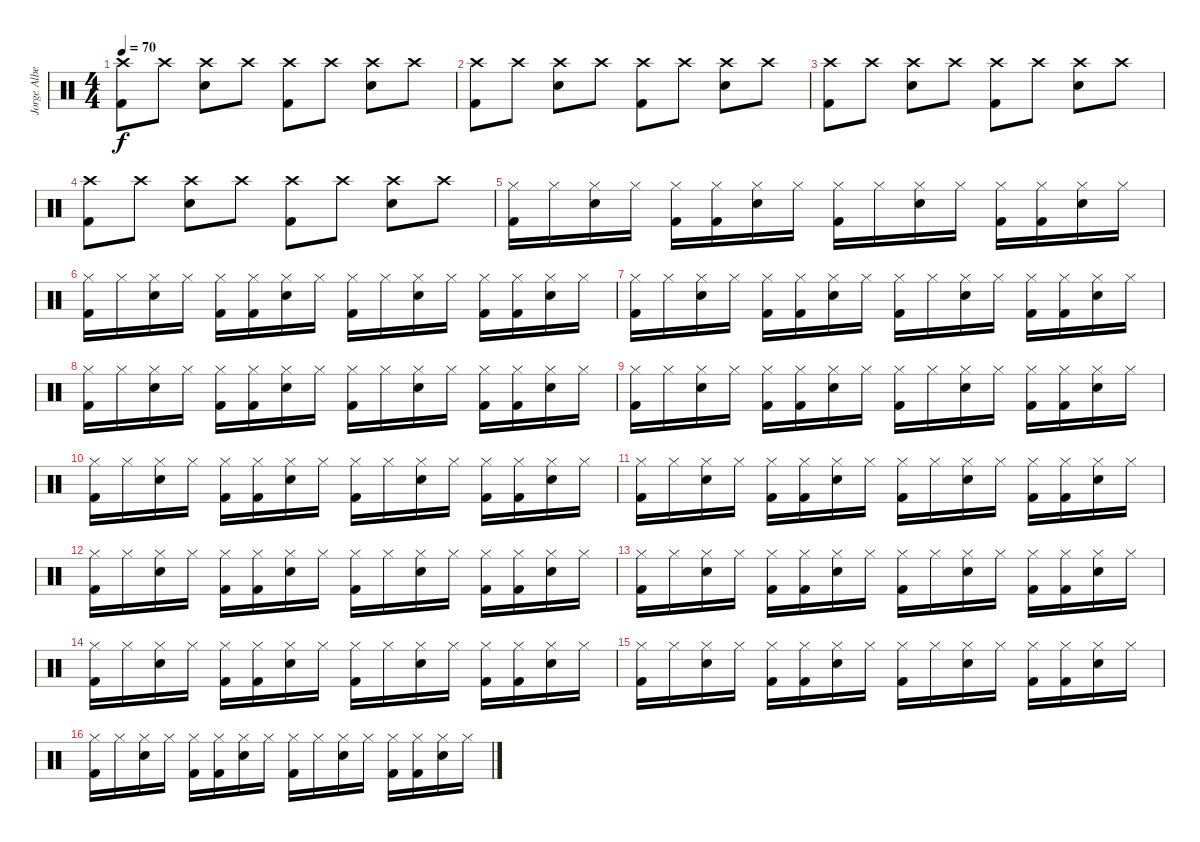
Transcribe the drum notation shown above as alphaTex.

\track ("Jorge Alberti" "Jorge Albe") {instrument percussion}
\staff {score}
\articulation defaults
\ts (4 4)
\tempo 70
\clef neutral
\ks c
("Crash high (hit)" "Kick (hit) 2").8{dy f} "Crash high (hit)".8 ("Crash high (hit)" "Snare (hit) 2").8 "Crash high (hit)".8 ("Crash high (hit)" "Kick (hit) 2").8 "Crash high (hit)".8 ("Crash high (hit)" "Snare (hit) 2").8 "Crash high (hit)".8 |
("Crash high (hit)" "Kick (hit) 2").8 "Crash high (hit)".8 ("Crash high (hit)" "Snare (hit) 2").8 "Crash high (hit)".8 ("Crash high (hit)" "Kick (hit) 2").8 "Crash high (hit)".8 ("Crash high (hit)" "Snare (hit) 2").8 "Crash high (hit)".8 |
("Crash high (hit)" "Kick (hit) 2").8 "Crash high (hit)".8 ("Crash high (hit)" "Snare (hit) 2").8 "Crash high (hit)".8 ("Crash high (hit)" "Kick (hit) 2").8 "Crash high (hit)".8 ("Crash high (hit)" "Snare (hit) 2").8 "Crash high (hit)".8 |
("Crash high (hit)" "Kick (hit) 2").8 "Crash high (hit)".8 ("Crash high (hit)" "Snare (hit) 2").8 "Crash high (hit)".8 ("Crash high (hit)" "Kick (hit) 2").8 "Crash high (hit)".8 ("Crash high (hit)" "Snare (hit) 2").8 "Crash high (hit)".8 |
("Hi-Hat (closed)" "Kick (hit) 2").16 "Hi-Hat (closed)".16 ("Hi-Hat (closed)" "Snare (hit) 2").16 "Hi-Hat (closed)".16 ("Hi-Hat (closed)" "Kick (hit) 2").16 ("Hi-Hat (closed)" "Kick (hit) 2").16 ("Hi-Hat (closed)" "Snare (hit) 2").16 "Hi-Hat (closed)".16 ("Hi-Hat (closed)" "Kick (hit) 2").16 "Hi-Hat (closed)".16 ("Hi-Hat (closed)" "Snare (hit) 2").16 "Hi-Hat (closed)".16 ("Hi-Hat (closed)" "Kick (hit) 2").16 ("Hi-Hat (closed)" "Kick (hit) 2").16 ("Hi-Hat (closed)" "Snare (hit) 2").16 "Hi-Hat (closed)".16 |
("Hi-Hat (closed)" "Kick (hit) 2").16 "Hi-Hat (closed)".16 ("Hi-Hat (closed)" "Snare (hit) 2").16 "Hi-Hat (closed)".16 ("Hi-Hat (closed)" "Kick (hit) 2").16 ("Hi-Hat (closed)" "Kick (hit) 2").16 ("Hi-Hat (closed)" "Snare (hit) 2").16 "Hi-Hat (closed)".16 ("Hi-Hat (closed)" "Kick (hit) 2").16 "Hi-Hat (closed)".16 ("Hi-Hat (closed)" "Snare (hit) 2").16 "Hi-Hat (closed)".16 ("Hi-Hat (closed)" "Kick (hit) 2").16 ("Hi-Hat (closed)" "Kick (hit) 2").16 ("Hi-Hat (closed)" "Snare (hit) 2").16 "Hi-Hat (closed)".16 |
("Hi-Hat (closed)" "Kick (hit) 2").16 "Hi-Hat (closed)".16 ("Hi-Hat (closed)" "Snare (hit) 2").16 "Hi-Hat (closed)".16 ("Hi-Hat (closed)" "Kick (hit) 2").16 ("Hi-Hat (closed)" "Kick (hit) 2").16 ("Hi-Hat (closed)" "Snare (hit) 2").16 "Hi-Hat (closed)".16 ("Hi-Hat (closed)" "Kick (hit) 2").16 "Hi-Hat (closed)".16 ("Hi-Hat (closed)" "Snare (hit) 2").16 "Hi-Hat (closed)".16 ("Hi-Hat (closed)" "Kick (hit) 2").16 ("Hi-Hat (closed)" "Kick (hit) 2").16 ("Hi-Hat (closed)" "Snare (hit) 2").16 "Hi-Hat (closed)".16 |
("Hi-Hat (closed)" "Kick (hit) 2").16 "Hi-Hat (closed)".16 ("Hi-Hat (closed)" "Snare (hit) 2").16 "Hi-Hat (closed)".16 ("Hi-Hat (closed)" "Kick (hit) 2").16 ("Hi-Hat (closed)" "Kick (hit) 2").16 ("Hi-Hat (closed)" "Snare (hit) 2").16 "Hi-Hat (closed)".16 ("Hi-Hat (closed)" "Kick (hit) 2").16 "Hi-Hat (closed)".16 ("Hi-Hat (closed)" "Snare (hit) 2").16 "Hi-Hat (closed)".16 ("Hi-Hat (closed)" "Kick (hit) 2").16 ("Hi-Hat (closed)" "Kick (hit) 2").16 ("Hi-Hat (closed)" "Snare (hit) 2").16 "Hi-Hat (closed)".16 |
("Hi-Hat (closed)" "Kick (hit) 2").16 "Hi-Hat (closed)".16 ("Hi-Hat (closed)" "Snare (hit) 2").16 "Hi-Hat (closed)".16 ("Hi-Hat (closed)" "Kick (hit) 2").16 ("Hi-Hat (closed)" "Kick (hit) 2").16 ("Hi-Hat (closed)" "Snare (hit) 2").16 "Hi-Hat (closed)".16 ("Hi-Hat (closed)" "Kick (hit) 2").16 "Hi-Hat (closed)".16 ("Hi-Hat (closed)" "Snare (hit) 2").16 "Hi-Hat (closed)".16 ("Hi-Hat (closed)" "Kick (hit) 2").16 ("Hi-Hat (closed)" "Kick (hit) 2").16 ("Hi-Hat (closed)" "Snare (hit) 2").16 "Hi-Hat (closed)".16 |
("Hi-Hat (closed)" "Kick (hit) 2").16 "Hi-Hat (closed)".16 ("Hi-Hat (closed)" "Snare (hit) 2").16 "Hi-Hat (closed)".16 ("Hi-Hat (closed)" "Kick (hit) 2").16 ("Hi-Hat (closed)" "Kick (hit) 2").16 ("Hi-Hat (closed)" "Snare (hit) 2").16 "Hi-Hat (closed)".16 ("Hi-Hat (closed)" "Kick (hit) 2").16 "Hi-Hat (closed)".16 ("Hi-Hat (closed)" "Snare (hit) 2").16 "Hi-Hat (closed)".16 ("Hi-Hat (closed)" "Kick (hit) 2").16 ("Hi-Hat (closed)" "Kick (hit) 2").16 ("Hi-Hat (closed)" "Snare (hit) 2").16 "Hi-Hat (closed)".16 |
("Hi-Hat (closed)" "Kick (hit) 2").16 "Hi-Hat (closed)".16 ("Hi-Hat (closed)" "Snare (hit) 2").16 "Hi-Hat (closed)".16 ("Hi-Hat (closed)" "Kick (hit) 2").16 ("Hi-Hat (closed)" "Kick (hit) 2").16 ("Hi-Hat (closed)" "Snare (hit) 2").16 "Hi-Hat (closed)".16 ("Hi-Hat (closed)" "Kick (hit) 2").16 "Hi-Hat (closed)".16 ("Hi-Hat (closed)" "Snare (hit) 2").16 "Hi-Hat (closed)".16 ("Hi-Hat (closed)" "Kick (hit) 2").16 ("Hi-Hat (closed)" "Kick (hit) 2").16 ("Hi-Hat (closed)" "Snare (hit) 2").16 "Hi-Hat (closed)".16 |
("Hi-Hat (closed)" "Kick (hit) 2").16 "Hi-Hat (closed)".16 ("Hi-Hat (closed)" "Snare (hit) 2").16 "Hi-Hat (closed)".16 ("Hi-Hat (closed)" "Kick (hit) 2").16 ("Hi-Hat (closed)" "Kick (hit) 2").16 ("Hi-Hat (closed)" "Snare (hit) 2").16 "Hi-Hat (closed)".16 ("Hi-Hat (closed)" "Kick (hit) 2").16 "Hi-Hat (closed)".16 ("Hi-Hat (closed)" "Snare (hit) 2").16 "Hi-Hat (closed)".16 ("Hi-Hat (closed)" "Kick (hit) 2").16 ("Hi-Hat (closed)" "Kick (hit) 2").16 ("Hi-Hat (closed)" "Snare (hit) 2").16 "Hi-Hat (closed)".16 |
("Hi-Hat (closed)" "Kick (hit) 2").16 "Hi-Hat (closed)".16 ("Hi-Hat (closed)" "Snare (hit) 2").16 "Hi-Hat (closed)".16 ("Hi-Hat (closed)" "Kick (hit) 2").16 ("Hi-Hat (closed)" "Kick (hit) 2").16 ("Hi-Hat (closed)" "Snare (hit) 2").16 "Hi-Hat (closed)".16 ("Hi-Hat (closed)" "Kick (hit) 2").16 "Hi-Hat (closed)".16 ("Hi-Hat (closed)" "Snare (hit) 2").16 "Hi-Hat (closed)".16 ("Hi-Hat (closed)" "Kick (hit) 2").16 ("Hi-Hat (closed)" "Kick (hit) 2").16 ("Hi-Hat (closed)" "Snare (hit) 2").16 "Hi-Hat (closed)".16 |
("Hi-Hat (closed)" "Kick (hit) 2").16 "Hi-Hat (closed)".16 ("Hi-Hat (closed)" "Snare (hit) 2").16 "Hi-Hat (closed)".16 ("Hi-Hat (closed)" "Kick (hit) 2").16 ("Hi-Hat (closed)" "Kick (hit) 2").16 ("Hi-Hat (closed)" "Snare (hit) 2").16 "Hi-Hat (closed)".16 ("Hi-Hat (closed)" "Kick (hit) 2").16 "Hi-Hat (closed)".16 ("Hi-Hat (closed)" "Snare (hit) 2").16 "Hi-Hat (closed)".16 ("Hi-Hat (closed)" "Kick (hit) 2").16 ("Hi-Hat (closed)" "Kick (hit) 2").16 ("Hi-Hat (closed)" "Snare (hit) 2").16 "Hi-Hat (closed)".16 |
("Hi-Hat (closed)" "Kick (hit) 2").16 "Hi-Hat (closed)".16 ("Hi-Hat (closed)" "Snare (hit) 2").16 "Hi-Hat (closed)".16 ("Hi-Hat (closed)" "Kick (hit) 2").16 ("Hi-Hat (closed)" "Kick (hit) 2").16 ("Hi-Hat (closed)" "Snare (hit) 2").16 "Hi-Hat (closed)".16 ("Hi-Hat (closed)" "Kick (hit) 2").16 "Hi-Hat (closed)".16 ("Hi-Hat (closed)" "Snare (hit) 2").16 "Hi-Hat (closed)".16 ("Hi-Hat (closed)" "Kick (hit) 2").16 ("Hi-Hat (closed)" "Kick (hit) 2").16 ("Hi-Hat (closed)" "Snare (hit) 2").16 "Hi-Hat (closed)".16 |
("Hi-Hat (closed)" "Kick (hit) 2").16 "Hi-Hat (closed)".16 ("Hi-Hat (closed)" "Snare (hit) 2").16 "Hi-Hat (closed)".16 ("Hi-Hat (closed)" "Kick (hit) 2").16 ("Hi-Hat (closed)" "Kick (hit) 2").16 ("Hi-Hat (closed)" "Snare (hit) 2").16 "Hi-Hat (closed)".16 ("Hi-Hat (closed)" "Kick (hit) 2").16 "Hi-Hat (closed)".16 ("Hi-Hat (closed)" "Snare (hit) 2").16 "Hi-Hat (closed)".16 ("Hi-Hat (closed)" "Kick (hit) 2").16 ("Hi-Hat (closed)" "Kick (hit) 2").16 ("Hi-Hat (closed)" "Snare (hit) 2").16 "Hi-Hat (closed)".16
